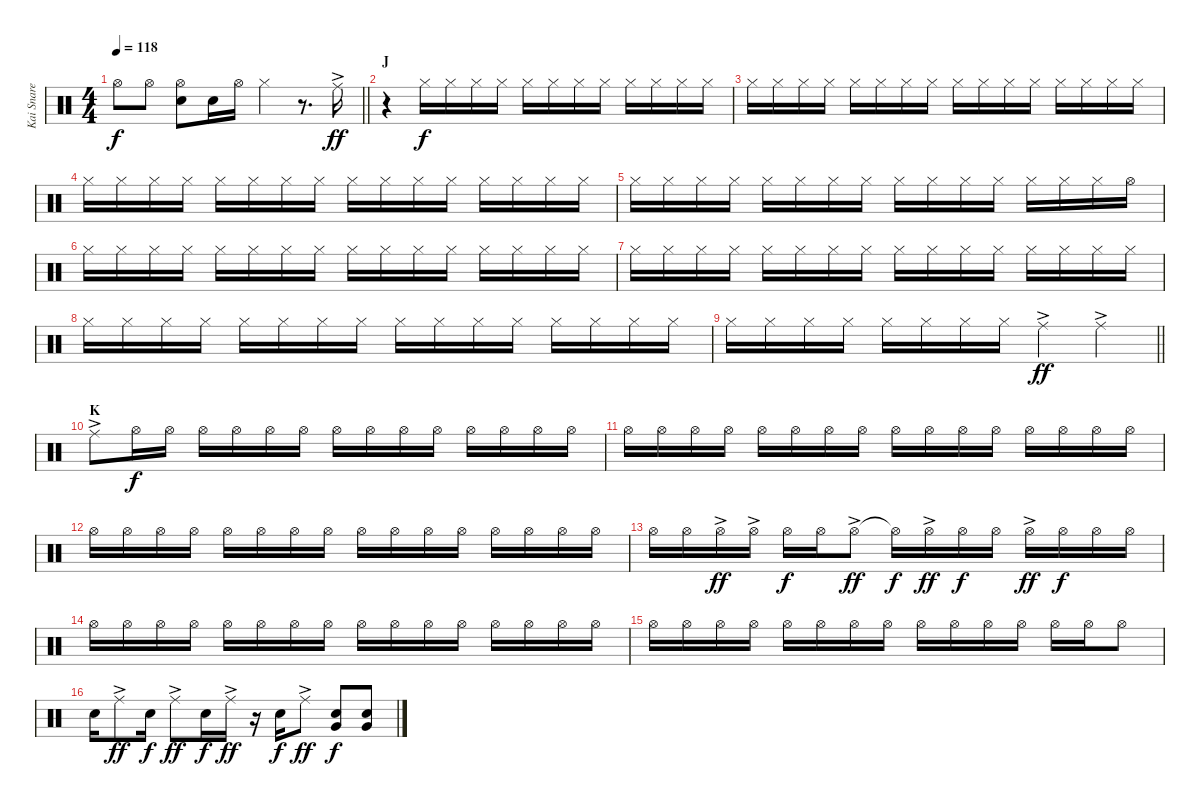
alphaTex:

\track ("Kai Snare" "Kai Snare") {instrument percussion}
\staff {score}
\articulation defaults
\ts (4 4)
\tempo 118
\clef neutral
\barLineRight lightlight
\ks c "Hi-Hat (open)".8{dy f} "Hi-Hat (open)".8
("Hi-Hat (open)" "Snare (hit) 2").8 "Snare (hit) 2".16 "Hi-Hat (open)".16 "Hi-Hat (closed)".4 r.8{d} "Ride (middle)"{ac}.16{dy ff} |
\section ("" "J")
r.4 "Hi-Hat (closed)".16{dy f} "Hi-Hat (closed)".16 "Hi-Hat (closed)".16 "Hi-Hat (closed)".16 "Hi-Hat (closed)".16 "Hi-Hat (closed)".16 "Hi-Hat (closed)".16 "Hi-Hat (closed)".16 "Hi-Hat (closed)".16 "Hi-Hat (closed)".16 "Hi-Hat (closed)".16 "Hi-Hat (closed)".16 |
"Hi-Hat (closed)".16 "Hi-Hat (closed)".16 "Hi-Hat (closed)".16 "Hi-Hat (closed)".16 "Hi-Hat (closed)".16 "Hi-Hat (closed)".16 "Hi-Hat (closed)".16 "Hi-Hat (closed)".16 "Hi-Hat (closed)".16 "Hi-Hat (closed)".16 "Hi-Hat (closed)".16 "Hi-Hat (closed)".16 "Hi-Hat (closed)".16 "Hi-Hat (closed)".16 "Hi-Hat (closed)".16 "Hi-Hat (closed)".16 |
"Hi-Hat (closed)".16 "Hi-Hat (closed)".16 "Hi-Hat (closed)".16 "Hi-Hat (closed)".16 "Hi-Hat (closed)".16 "Hi-Hat (closed)".16 "Hi-Hat (closed)".16 "Hi-Hat (closed)".16 "Hi-Hat (closed)".16 "Hi-Hat (closed)".16 "Hi-Hat (closed)".16 "Hi-Hat (closed)".16 "Hi-Hat (closed)".16 "Hi-Hat (closed)".16 "Hi-Hat (closed)".16 "Hi-Hat (closed)".16 |
"Hi-Hat (closed)".16 "Hi-Hat (closed)".16 "Hi-Hat (closed)".16 "Hi-Hat (closed)".16 "Hi-Hat (closed)".16 "Hi-Hat (closed)".16 "Hi-Hat (closed)".16 "Hi-Hat (closed)".16 "Hi-Hat (closed)".16 "Hi-Hat (closed)".16 "Hi-Hat (closed)".16 "Hi-Hat (closed)".16 "Hi-Hat (closed)".16 "Hi-Hat (closed)".16 "Hi-Hat (closed)".16 "Hi-Hat (open)".16 |
"Hi-Hat (closed)".16 "Hi-Hat (closed)".16 "Hi-Hat (closed)".16 "Hi-Hat (closed)".16 "Hi-Hat (closed)".16 "Hi-Hat (closed)".16 "Hi-Hat (closed)".16 "Hi-Hat (closed)".16 "Hi-Hat (closed)".16 "Hi-Hat (closed)".16 "Hi-Hat (closed)".16 "Hi-Hat (closed)".16 "Hi-Hat (closed)".16 "Hi-Hat (closed)".16 "Hi-Hat (closed)".16 "Hi-Hat (closed)".16 |
"Hi-Hat (closed)".16 "Hi-Hat (closed)".16 "Hi-Hat (closed)".16 "Hi-Hat (closed)".16 "Hi-Hat (closed)".16 "Hi-Hat (closed)".16 "Hi-Hat (closed)".16 "Hi-Hat (closed)".16 "Hi-Hat (closed)".16 "Hi-Hat (closed)".16 "Hi-Hat (closed)".16 "Hi-Hat (closed)".16 "Hi-Hat (closed)".16 "Hi-Hat (closed)".16 "Hi-Hat (closed)".16 "Hi-Hat (closed)".16 |
"Hi-Hat (closed)".16 "Hi-Hat (closed)".16 "Hi-Hat (closed)".16 "Hi-Hat (closed)".16 "Hi-Hat (closed)".16 "Hi-Hat (closed)".16 "Hi-Hat (closed)".16 "Hi-Hat (closed)".16 "Hi-Hat (closed)".16 "Hi-Hat (closed)".16 "Hi-Hat (closed)".16 "Hi-Hat (closed)".16 "Hi-Hat (closed)".16 "Hi-Hat (closed)".16 "Hi-Hat (closed)".16 "Hi-Hat (closed)".16 |
\barLineRight lightlight "Hi-Hat (closed)".16 "Hi-Hat (closed)".16 "Hi-Hat (closed)".16 "Hi-Hat (closed)".16 "Hi-Hat (closed)".16 "Hi-Hat (closed)".16 "Hi-Hat (closed)".16 "Hi-Hat (closed)".16 "Ride (middle)"{ac}.4{dy ff} "Ride (middle)"{ac}.4
|
\section ("" "K")
"Ride (middle)"{ac}.8 "Hi-Hat (open)".16{dy f} "Hi-Hat (open)".16 "Hi-Hat (open)".16 "Hi-Hat (open)".16 "Hi-Hat (open)".16 "Hi-Hat (open)".16 "Hi-Hat (open)".16 "Hi-Hat (open)".16 "Hi-Hat (open)".16 "Hi-Hat (open)".16 "Hi-Hat (open)".16 "Hi-Hat (open)".16 "Hi-Hat (open)".16 "Hi-Hat (open)".16 |
"Hi-Hat (open)".16 "Hi-Hat (open)".16 "Hi-Hat (open)".16 "Hi-Hat (open)".16 "Hi-Hat (open)".16 "Hi-Hat (open)".16 "Hi-Hat (open)".16 "Hi-Hat (open)".16 "Hi-Hat (open)".16 "Hi-Hat (open)".16 "Hi-Hat (open)".16 "Hi-Hat (open)".16 "Hi-Hat (open)".16 "Hi-Hat (open)".16 "Hi-Hat (open)".16 "Hi-Hat (open)".16 |
"Hi-Hat (open)".16 "Hi-Hat (open)".16 "Hi-Hat (open)".16 "Hi-Hat (open)".16 "Hi-Hat (open)".16 "Hi-Hat (open)".16 "Hi-Hat (open)".16 "Hi-Hat (open)".16 "Hi-Hat (open)".16 "Hi-Hat (open)".16 "Hi-Hat (open)".16 "Hi-Hat (open)".16 "Hi-Hat (open)".16 "Hi-Hat (open)".16 "Hi-Hat (open)".16 "Hi-Hat (open)".16 |
"Hi-Hat (open)".16 "Hi-Hat (open)".16 "Hi-Hat (open)"{ac}.16{dy ff} "Hi-Hat (open)"{ac}.16 "Hi-Hat (open)".16{dy f} "Hi-Hat (open)".16 "Hi-Hat (open)"{ac}.8{dy ff} "Hi-Hat (open)"{t}.16{dy f} "Hi-Hat (open)"{ac}.16{dy ff} "Hi-Hat (open)".16{dy f} "Hi-Hat (open)".16 "Hi-Hat (open)"{ac}.16{dy ff} "Hi-Hat (open)".16{dy f} "Hi-Hat (open)".16 "Hi-Hat (open)".16 |
"Hi-Hat (open)".16 "Hi-Hat (open)".16 "Hi-Hat (open)".16 "Hi-Hat (open)".16 "Hi-Hat (open)".16 "Hi-Hat (open)".16 "Hi-Hat (open)".16 "Hi-Hat (open)".16 "Hi-Hat (open)".16 "Hi-Hat (open)".16 "Hi-Hat (open)".16 "Hi-Hat (open)".16 "Hi-Hat (open)".16 "Hi-Hat (open)".16 "Hi-Hat (open)".16 "Hi-Hat (open)".16 |
"Hi-Hat (open)".16 "Hi-Hat (open)".16 "Hi-Hat (open)".16 "Hi-Hat (open)".16 "Hi-Hat (open)".16 "Hi-Hat (open)".16 "Hi-Hat (open)".16 "Hi-Hat (open)".16 "Hi-Hat (open)".16 "Hi-Hat (open)".16 "Hi-Hat (open)".16 "Hi-Hat (open)".16 "Hi-Hat (open)".16 "Hi-Hat (open)".16 "Hi-Hat (open)".8 |
"Snare (hit) 2".16 "Ride (middle)"{ac}.8{dy ff} "Snare (hit) 2".16{dy f} "Ride (middle)"{ac}.8{dy ff} "Snare (hit) 2".16{dy f} "Ride (middle)"{ac}.16{dy ff} r.16 "Snare (hit) 2".16{dy f} "Ride (middle)"{ac}.8{dy ff} ("Very Low Tom (hit)" "Snare (hit) 2").8{dy f} ("Very Low Tom (hit)" "Snare (hit) 2").8
